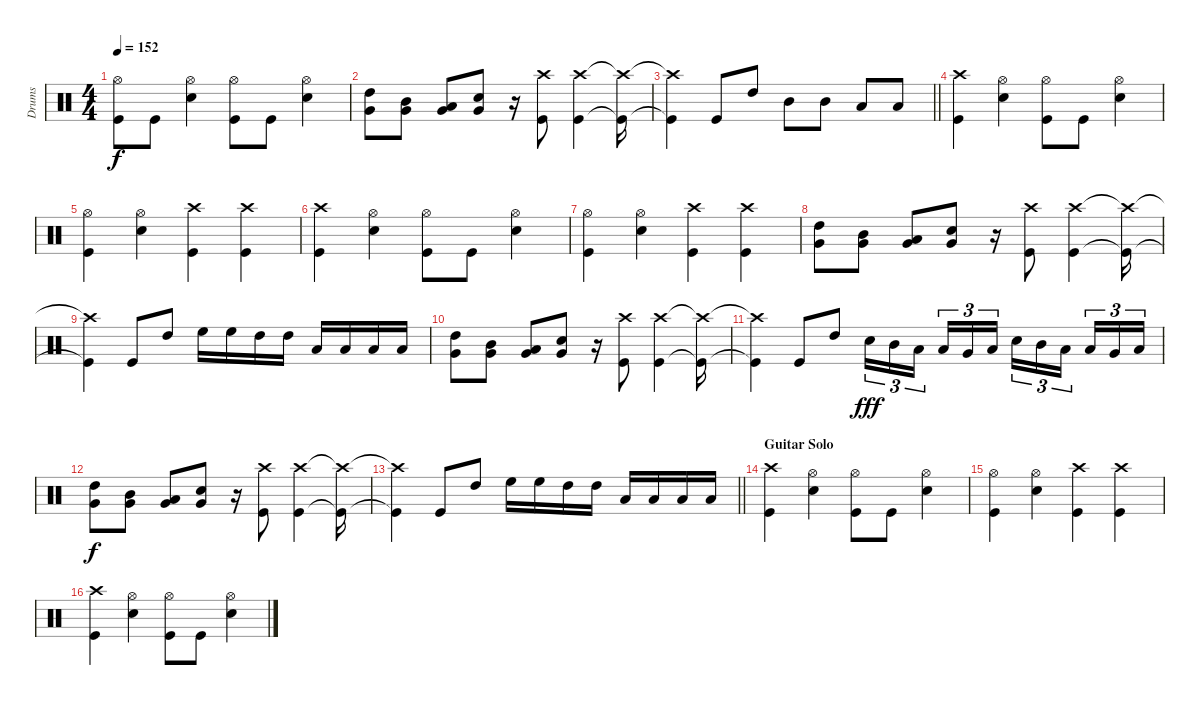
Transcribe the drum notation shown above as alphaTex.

\track ("Drums" "Drums") {instrument percussion}
\staff {score}
\articulation defaults
\ts (4 4)
\tempo 152
\clef neutral
\ks c
("Hi-Hat (open)" "Kick (hit)").8{dy f} "Kick (hit)".8 ("Hi-Hat (open)" "Snare (hit) 2").4 ("Hi-Hat (open)" "Kick (hit)").8 "Kick (hit)".8 ("Hi-Hat (open)" "Snare (hit) 2").4 |
("Very Low Tom (hit)" "High Tom (hit)").8 ("Very Low Tom (hit)" "Mid Tom (hit)").8 ("Very Low Tom (hit)" "Low Tom (hit)").8 ("Very Low Tom (hit)" "Snare (hit) 2").8 r.16 ("Kick (hit)" "Crash high (hit)").8 ("Kick (hit)" "Crash high (hit)").4 ("Kick (hit)"{t} "Crash high (hit)"{t}).16 |
\barLineRight lightlight
("Kick (hit)"{t} "Crash high (hit)"{t}).4 "Kick (hit)".8 "High Tom (hit)".8 "Mid Tom (hit)".8 "Mid Tom (hit)".8 "Low Tom (hit)".8 "Low Tom (hit)".8 |
\section ("" "")
("Kick (hit)" "Crash high (hit)").4 ("Hi-Hat (open)" "Snare (hit) 2").4 ("Hi-Hat (open)" "Kick (hit)").8 "Kick (hit)".8 ("Hi-Hat (open)" "Snare (hit) 2").4 |
("Kick (hit)" "Hi-Hat (open)").4 ("Hi-Hat (open)" "Snare (hit) 2").4 ("Kick (hit)" "Crash high (hit)").4 ("Kick (hit)" "Crash high (hit)").4 |
("Kick (hit)" "Crash high (hit)").4 ("Hi-Hat (open)" "Snare (hit) 2").4 ("Hi-Hat (open)" "Kick (hit)").8 "Kick (hit)".8 ("Hi-Hat (open)" "Snare (hit) 2").4 |
("Kick (hit)" "Hi-Hat (open)").4 ("Hi-Hat (open)" "Snare (hit) 2").4 ("Kick (hit)" "Crash high (hit)").4 ("Kick (hit)" "Crash high (hit)").4 |
("Very Low Tom (hit)" "High Tom (hit)").8 ("Very Low Tom (hit)" "Mid Tom (hit)").8 ("Very Low Tom (hit)" "Low Tom (hit)").8 ("Very Low Tom (hit)" "Snare (hit) 2").8 r.16 ("Kick (hit)" "Crash high (hit)").8 ("Kick (hit)" "Crash high (hit)").4 ("Kick (hit)"{t} "Crash high (hit)"{t}).16 |
("Kick (hit)"{t} "Crash high (hit)"{t}).4 "Kick (hit)".8 "High Tom (hit)".8 "High Floor Tom (hit)".16 "High Floor Tom (hit)".16 "High Tom (hit)".16 "High Tom (hit)".16 "Low Tom (hit)".16 "Low Tom (hit)".16 "Low Tom (hit)".16 "Low Tom (hit)".16 |
("Very Low Tom (hit)" "High Tom (hit)").8 ("Very Low Tom (hit)" "Mid Tom (hit)").8 ("Very Low Tom (hit)" "Low Tom (hit)").8 ("Very Low Tom (hit)" "Snare (hit) 2").8 r.16 ("Kick (hit)" "Crash high (hit)").8 ("Kick (hit)" "Crash high (hit)").4 ("Kick (hit)"{t} "Crash high (hit)"{t}).16 |
("Kick (hit)"{t} "Crash high (hit)"{t}).4 "Kick (hit)".8 "High Tom (hit)".8 "Snare (hit) 2".16{tu (3 2) dy fff} "Mid Tom (hit)".16{tu (3 2)} "Low Tom (hit)".16{tu (3 2) beam splitsecondary} "Low Tom (hit)".16{tu (3 2)} "Very Low Tom (hit)".16{tu (3 2)} "Low Floor Tom (hit)".16{tu (3 2)} "Snare (hit) 2".16{tu (3 2)} "Mid Tom (hit)".16{tu (3 2)} "Low Tom (hit)".16{tu (3 2) beam splitsecondary} "Low Tom (hit)".16{tu (3 2)} "Very Low Tom (hit)".16{tu (3 2)} "Low Floor Tom (hit)".16{tu (3 2)} |
("Very Low Tom (hit)" "High Tom (hit)").8{dy f} ("Very Low Tom (hit)" "Mid Tom (hit)").8 ("Very Low Tom (hit)" "Low Tom (hit)").8 ("Very Low Tom (hit)" "Snare (hit) 2").8 r.16 ("Kick (hit)" "Crash high (hit)").8 ("Kick (hit)" "Crash high (hit)").4 ("Kick (hit)"{t} "Crash high (hit)"{t}).16 |
\barLineRight lightlight
("Kick (hit)"{t} "Crash high (hit)"{t}).4 "Kick (hit)".8 "High Tom (hit)".8 "High Floor Tom (hit)".16 "High Floor Tom (hit)".16 "High Tom (hit)".16 "High Tom (hit)".16 "Low Tom (hit)".16 "Low Tom (hit)".16 "Low Tom (hit)".16 "Low Tom (hit)".16 |
\section ("" "Guitar Solo")
("Kick (hit)" "Crash high (hit)").4 ("Hi-Hat (open)" "Snare (hit) 2").4 ("Hi-Hat (open)" "Kick (hit)").8 "Kick (hit)".8 ("Hi-Hat (open)" "Snare (hit) 2").4 |
("Kick (hit)" "Hi-Hat (open)").4 ("Hi-Hat (open)" "Snare (hit) 2").4 ("Kick (hit)" "Crash high (hit)").4 ("Kick (hit)" "Crash high (hit)").4 |
("Kick (hit)" "Crash high (hit)").4 ("Hi-Hat (open)" "Snare (hit) 2").4 ("Hi-Hat (open)" "Kick (hit)").8 "Kick (hit)".8 ("Hi-Hat (open)" "Snare (hit) 2").4
